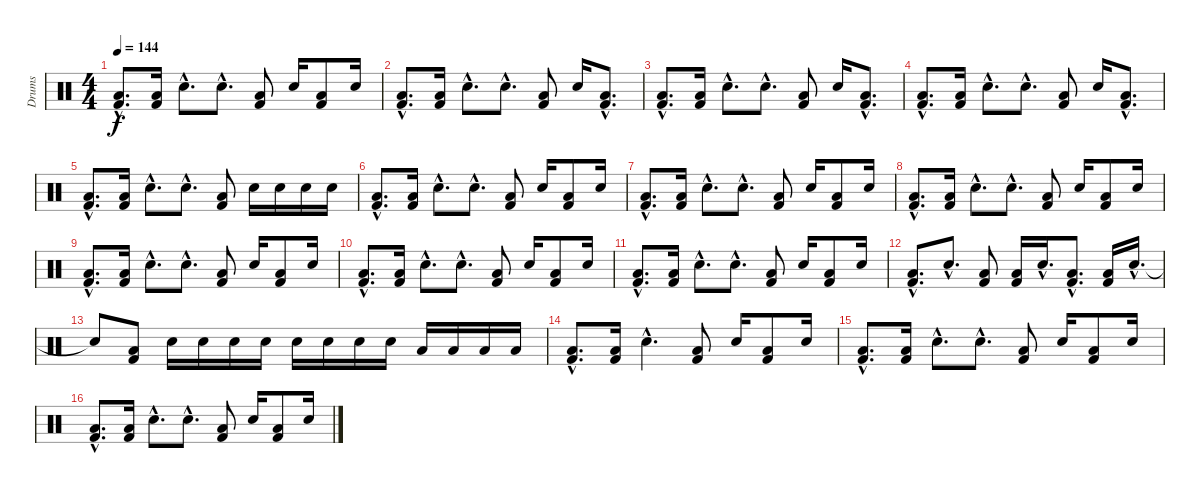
\track ("Drums" "Drums") {instrument percussion}
\staff {score}
\articulation defaults
\ts (4 4)
\tempo 144
\clef neutral
\ks c
("Low Floor Tom (hit)"{hac} "Kick (hit) 2"{hac}).8{d dy f} ("Low Floor Tom (hit)" "Kick (hit) 2").16 "Snare (hit) 2"{hac}.8{d} "Snare (hit) 2"{hac}.8{d} ("Low Floor Tom (hit)" "Kick (hit) 2").8 "Snare (hit) 2".16 ("Low Floor Tom (hit)" "Kick (hit) 2").8 "Snare (hit) 2".16 |
("Low Floor Tom (hit)"{hac} "Kick (hit) 2"{hac}).8{d} ("Low Floor Tom (hit)" "Kick (hit) 2").16 "Snare (hit) 2"{hac}.8{d} "Snare (hit) 2"{hac}.8{d} ("Low Floor Tom (hit)" "Kick (hit) 2").8 "Snare (hit) 2".16 ("Low Floor Tom (hit)"{hac} "Kick (hit) 2"{hac}).8{d} |
("Low Floor Tom (hit)"{hac} "Kick (hit) 2"{hac}).8{d} ("Low Floor Tom (hit)" "Kick (hit) 2").16 "Snare (hit) 2"{hac}.8{d} "Snare (hit) 2"{hac}.8{d} ("Low Floor Tom (hit)" "Kick (hit) 2").8 "Snare (hit) 2".16 ("Low Floor Tom (hit)"{hac} "Kick (hit) 2"{hac}).8{d} |
("Low Floor Tom (hit)"{hac} "Kick (hit) 2"{hac}).8{d} ("Low Floor Tom (hit)" "Kick (hit) 2").16 "Snare (hit) 2"{hac}.8{d} "Snare (hit) 2"{hac}.8{d} ("Low Floor Tom (hit)" "Kick (hit) 2").8 "Snare (hit) 2".16 ("Low Floor Tom (hit)"{hac} "Kick (hit) 2"{hac}).8{d} |
("Low Floor Tom (hit)"{hac} "Kick (hit) 2"{hac}).8{d} ("Low Floor Tom (hit)" "Kick (hit) 2").16 "Snare (hit) 2"{hac}.8{d} "Snare (hit) 2"{hac}.8{d} ("Low Floor Tom (hit)" "Kick (hit) 2").8 "Snare (hit) 2".16 "Snare (hit) 2".16 "Snare (hit) 2".16 "Snare (hit) 2".16 |
("Low Floor Tom (hit)"{hac} "Kick (hit) 2"{hac}).8{d} ("Low Floor Tom (hit)" "Kick (hit) 2").16 "Snare (hit) 2"{hac}.8{d} "Snare (hit) 2"{hac}.8{d} ("Low Floor Tom (hit)" "Kick (hit) 2").8 "Snare (hit) 2".16 ("Low Floor Tom (hit)" "Kick (hit) 2").8 "Snare (hit) 2".16 |
("Low Floor Tom (hit)"{hac} "Kick (hit) 2"{hac}).8{d} ("Low Floor Tom (hit)" "Kick (hit) 2").16 "Snare (hit) 2"{hac}.8{d} "Snare (hit) 2"{hac}.8{d} ("Low Floor Tom (hit)" "Kick (hit) 2").8 "Snare (hit) 2".16 ("Low Floor Tom (hit)" "Kick (hit) 2").8 "Snare (hit) 2".16 |
("Low Floor Tom (hit)"{hac} "Kick (hit) 2"{hac}).8{d} ("Low Floor Tom (hit)" "Kick (hit) 2").16 "Snare (hit) 2"{hac}.8{d} "Snare (hit) 2"{hac}.8{d} ("Low Floor Tom (hit)" "Kick (hit) 2").8 "Snare (hit) 2".16 ("Low Floor Tom (hit)" "Kick (hit) 2").8 "Snare (hit) 2".16 |
("Low Floor Tom (hit)"{hac} "Kick (hit) 2"{hac}).8{d} ("Low Floor Tom (hit)" "Kick (hit) 2").16 "Snare (hit) 2"{hac}.8{d} "Snare (hit) 2"{hac}.8{d} ("Low Floor Tom (hit)" "Kick (hit) 2").8 "Snare (hit) 2".16 ("Low Floor Tom (hit)" "Kick (hit) 2").8 "Snare (hit) 2".16 |
("Low Floor Tom (hit)"{hac} "Kick (hit) 2"{hac}).8{d} ("Low Floor Tom (hit)" "Kick (hit) 2").16 "Snare (hit) 2"{hac}.8{d} "Snare (hit) 2"{hac}.8{d} ("Low Floor Tom (hit)" "Kick (hit) 2").8 "Snare (hit) 2".16 ("Low Floor Tom (hit)" "Kick (hit) 2").8 "Snare (hit) 2".16 |
("Low Floor Tom (hit)"{hac} "Kick (hit) 2"{hac}).8{d} ("Low Floor Tom (hit)" "Kick (hit) 2").16 "Snare (hit) 2"{hac}.8{d} "Snare (hit) 2"{hac}.8{d} ("Low Floor Tom (hit)" "Kick (hit) 2").8 "Snare (hit) 2".16 ("Low Floor Tom (hit)" "Kick (hit) 2").8 "Snare (hit) 2".16 |
("Low Floor Tom (hit)"{hac} "Kick (hit) 2"{hac}).8{d} "Snare (hit) 2"{hac}.8{d} ("Low Floor Tom (hit)" "Kick (hit) 2").8 ("Low Floor Tom (hit)" "Kick (hit) 2").16 "Snare (hit) 2"{hac}.16{d} ("Low Floor Tom (hit)"{hac} "Kick (hit) 2"{hac}).8{d} ("Low Floor Tom (hit)" "Kick (hit) 2").16 "Snare (hit) 2"{hac}.16{d} |
"Snare (hit)"{t}.8 ("Low Floor Tom (hit)" "Kick (hit) 2").8 "Snare (hit) 2".16 "Snare (hit) 2".16 "Snare (hit) 2".16 "Snare (hit) 2".16 "Snare (hit) 2".16 "Snare (hit) 2".16 "Snare (hit) 2".16 "Snare (hit) 2".16 "Low Floor Tom (hit)".16 "Low Floor Tom (hit)".16 "Low Floor Tom (hit)".16 "Low Floor Tom (hit)".16 |
("Low Floor Tom (hit)"{hac} "Kick (hit) 2"{hac}).8{d} ("Low Floor Tom (hit)" "Kick (hit) 2").16 "Snare (hit) 2"{hac}.4{d} ("Low Floor Tom (hit)" "Kick (hit) 2").8 "Snare (hit) 2".16 ("Low Floor Tom (hit)" "Kick (hit) 2").8 "Snare (hit) 2".16 |
("Low Floor Tom (hit)"{hac} "Kick (hit) 2"{hac}).8{d} ("Low Floor Tom (hit)" "Kick (hit) 2").16 "Snare (hit) 2"{hac}.8{d} "Snare (hit) 2"{hac}.8{d} ("Low Floor Tom (hit)" "Kick (hit) 2").8 "Snare (hit) 2".16 ("Low Floor Tom (hit)" "Kick (hit) 2").8 "Snare (hit) 2".16 |
("Low Floor Tom (hit)"{hac} "Kick (hit) 2"{hac}).8{d} ("Low Floor Tom (hit)" "Kick (hit) 2").16 "Snare (hit) 2"{hac}.8{d} "Snare (hit) 2"{hac}.8{d} ("Low Floor Tom (hit)" "Kick (hit) 2").8 "Snare (hit) 2".16 ("Low Floor Tom (hit)" "Kick (hit) 2").8 "Snare (hit) 2".16
